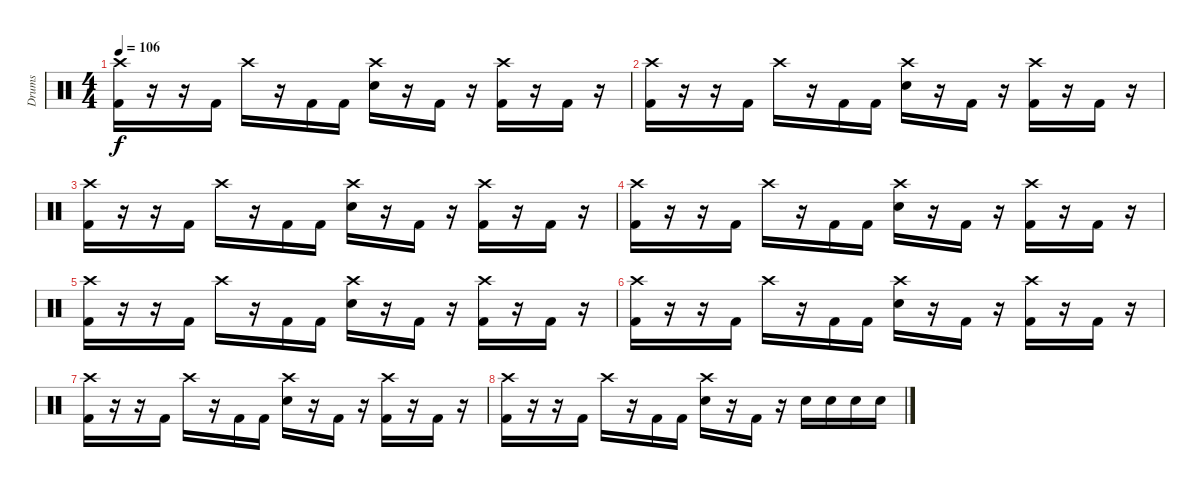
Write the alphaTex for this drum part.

\track ("Drums" "Drums") {instrument percussion}
\staff {score}
\articulation defaults
\ts (4 4)
\tempo 106
\clef neutral
\ks c
("Crash high (hit)" "Kick (hit) 2").16{dy f} r.16 r.16 "Kick (hit) 2".16 "Crash high (hit)".16 r.16 "Kick (hit) 2".16 "Kick (hit) 2".16 ("Crash high (hit)" "Electric Snare (hit)").16 r.16 "Kick (hit) 2".16 r.16 ("Crash high (hit)" "Kick (hit) 2").16 r.16 "Kick (hit) 2".16 r.16 |
("Crash high (hit)" "Kick (hit) 2").16 r.16 r.16 "Kick (hit) 2".16 "Crash high (hit)".16 r.16 "Kick (hit) 2".16 "Kick (hit) 2".16 ("Crash high (hit)" "Electric Snare (hit)").16 r.16 "Kick (hit) 2".16 r.16 ("Crash high (hit)" "Kick (hit) 2").16 r.16 "Kick (hit) 2".16 r.16 |
("Crash high (hit)" "Kick (hit) 2").16 r.16 r.16 "Kick (hit) 2".16 "Crash high (hit)".16 r.16 "Kick (hit) 2".16 "Kick (hit) 2".16 ("Crash high (hit)" "Electric Snare (hit)").16 r.16 "Kick (hit) 2".16 r.16 ("Crash high (hit)" "Kick (hit) 2").16 r.16 "Kick (hit) 2".16 r.16 |
("Crash high (hit)" "Kick (hit) 2").16 r.16 r.16 "Kick (hit) 2".16 "Crash high (hit)".16 r.16 "Kick (hit) 2".16 "Kick (hit) 2".16 ("Crash high (hit)" "Electric Snare (hit)").16 r.16 "Kick (hit) 2".16 r.16 ("Crash high (hit)" "Kick (hit) 2").16 r.16 "Kick (hit) 2".16 r.16 |
("Crash high (hit)" "Kick (hit) 2").16 r.16 r.16 "Kick (hit) 2".16 "Crash high (hit)".16 r.16 "Kick (hit) 2".16 "Kick (hit) 2".16 ("Crash high (hit)" "Electric Snare (hit)").16 r.16 "Kick (hit) 2".16 r.16 ("Crash high (hit)" "Kick (hit) 2").16 r.16 "Kick (hit) 2".16 r.16 |
("Crash high (hit)" "Kick (hit) 2").16 r.16 r.16 "Kick (hit) 2".16 "Crash high (hit)".16 r.16 "Kick (hit) 2".16 "Kick (hit) 2".16 ("Crash high (hit)" "Electric Snare (hit)").16 r.16 "Kick (hit) 2".16 r.16 ("Crash high (hit)" "Kick (hit) 2").16 r.16 "Kick (hit) 2".16 r.16 |
("Crash high (hit)" "Kick (hit) 2").16 r.16 r.16 "Kick (hit) 2".16 "Crash high (hit)".16 r.16 "Kick (hit) 2".16 "Kick (hit) 2".16 ("Crash high (hit)" "Electric Snare (hit)").16 r.16 "Kick (hit) 2".16 r.16 ("Crash high (hit)" "Kick (hit) 2").16 r.16 "Kick (hit) 2".16 r.16 |
("Crash high (hit)" "Kick (hit) 2").16 r.16 r.16 "Kick (hit) 2".16 "Crash high (hit)".16 r.16 "Kick (hit) 2".16 "Kick (hit) 2".16 ("Crash high (hit)" "Electric Snare (hit)").16 r.16 "Kick (hit) 2".16 r.16 "Electric Snare (hit)".16 "Electric Snare (hit)".16 "Electric Snare (hit)".16 "Electric Snare (hit)".16
